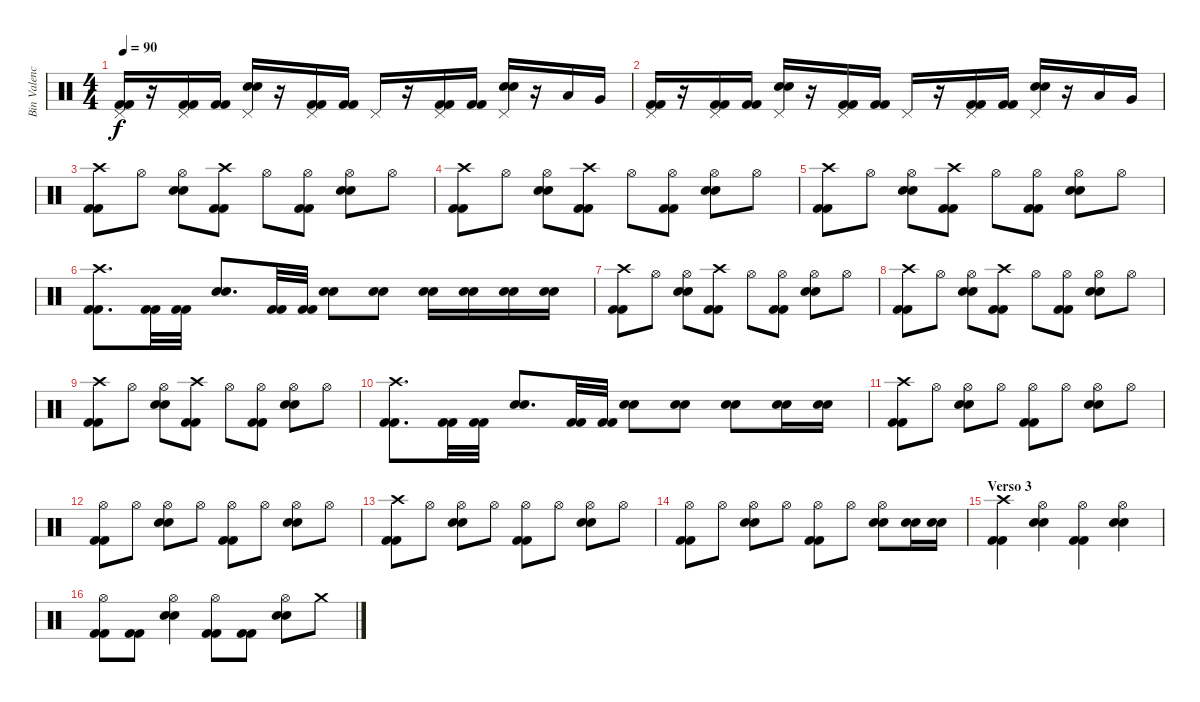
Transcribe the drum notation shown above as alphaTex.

\track ("Bin Valencia" "Bin Valenc") {instrument percussion}
\staff {score}
\articulation defaults
\ts (4 4)
\tempo 90
\clef neutral
\ks c
("Pedal Hi-Hat (hit)" "Kick (hit) 2" "Kick (hit) 2").16{dy f} r.16 ("Pedal Hi-Hat (hit)" "Kick (hit) 2" "Kick (hit) 2").16 ("Kick (hit) 2" "Kick (hit) 2").16 ("Pedal Hi-Hat (hit)" "Electric Snare (hit)" "Electric Snare (hit)").16 r.16 ("Pedal Hi-Hat (hit)" "Kick (hit) 2" "Kick (hit) 2").16 ("Kick (hit) 2" "Kick (hit) 2").16 "Pedal Hi-Hat (hit)".16 r.16 ("Pedal Hi-Hat (hit)" "Kick (hit) 2" "Kick (hit) 2").16 ("Kick (hit) 2" "Kick (hit) 2").16 ("Pedal Hi-Hat (hit)" "Electric Snare (hit)" "Electric Snare (hit)").16 r.16 "Low Tom (hit)".16 "Very Low Tom (hit)".16 |
("Pedal Hi-Hat (hit)" "Kick (hit) 2" "Kick (hit) 2").16 r.16 ("Pedal Hi-Hat (hit)" "Kick (hit) 2" "Kick (hit) 2").16 ("Kick (hit) 2" "Kick (hit) 2").16 ("Pedal Hi-Hat (hit)" "Electric Snare (hit)" "Electric Snare (hit)").16 r.16 ("Pedal Hi-Hat (hit)" "Kick (hit) 2" "Kick (hit) 2").16 ("Kick (hit) 2" "Kick (hit) 2").16 "Pedal Hi-Hat (hit)".16 r.16 ("Pedal Hi-Hat (hit)" "Kick (hit) 2" "Kick (hit) 2").16 ("Kick (hit) 2" "Kick (hit) 2").16 ("Pedal Hi-Hat (hit)" "Electric Snare (hit)" "Electric Snare (hit)").16 r.16 "Low Tom (hit)".16 "Very Low Tom (hit)".16 |
("Crash high (hit)" "Kick (hit) 2" "Kick (hit) 2").8 "Hi-Hat (open)".8 ("Hi-Hat (open)" "Snare (hit) 2" "Snare (hit) 2").8 ("Crash high (hit)" "Kick (hit) 2" "Kick (hit) 2").8 "Hi-Hat (open)".8 ("Hi-Hat (open)" "Kick (hit) 2" "Kick (hit) 2").8 ("Hi-Hat (open)" "Snare (hit) 2" "Snare (hit) 2").8 "Hi-Hat (open)".8 |
("Crash high (hit)" "Kick (hit) 2" "Kick (hit) 2").8 "Hi-Hat (open)".8 ("Hi-Hat (open)" "Snare (hit) 2" "Snare (hit) 2").8 ("Crash high (hit)" "Kick (hit) 2" "Kick (hit) 2").8 "Hi-Hat (open)".8 ("Hi-Hat (open)" "Kick (hit) 2" "Kick (hit) 2").8 ("Hi-Hat (open)" "Snare (hit) 2" "Snare (hit) 2").8 "Hi-Hat (open)".8 |
("Crash high (hit)" "Kick (hit) 2" "Kick (hit) 2").8 "Hi-Hat (open)".8 ("Hi-Hat (open)" "Snare (hit) 2" "Snare (hit) 2").8 ("Crash high (hit)" "Kick (hit) 2" "Kick (hit) 2").8 "Hi-Hat (open)".8 ("Hi-Hat (open)" "Kick (hit) 2" "Kick (hit) 2").8 ("Hi-Hat (open)" "Snare (hit) 2" "Snare (hit) 2").8 "Hi-Hat (open)".8 |
("Crash high (hit)" "Kick (hit) 2" "Kick (hit) 2").8{d} ("Kick (hit) 2" "Kick (hit) 2").32 ("Kick (hit) 2" "Kick (hit) 2").32 ("Snare (hit) 2" "Snare (hit) 2").8{d} ("Kick (hit) 2" "Kick (hit) 2").32 ("Kick (hit) 2" "Kick (hit) 2").32 ("Snare (hit) 2" "Snare (hit) 2").8 ("Snare (hit) 2" "Snare (hit) 2").8 ("Snare (hit) 2" "Snare (hit) 2").16 ("Snare (hit) 2" "Snare (hit) 2").16 ("Snare (hit) 2" "Snare (hit) 2").16 ("Snare (hit) 2" "Snare (hit) 2").16 |
("Crash high (hit)" "Kick (hit) 2" "Kick (hit) 2").8 "Hi-Hat (open)".8 ("Hi-Hat (open)" "Snare (hit) 2" "Snare (hit) 2").8 ("Crash high (hit)" "Kick (hit) 2" "Kick (hit) 2").8 "Hi-Hat (open)".8 ("Hi-Hat (open)" "Kick (hit) 2" "Kick (hit) 2").8 ("Hi-Hat (open)" "Snare (hit) 2" "Snare (hit) 2").8 "Hi-Hat (open)".8 |
("Crash high (hit)" "Kick (hit) 2" "Kick (hit) 2").8 "Hi-Hat (open)".8 ("Hi-Hat (open)" "Snare (hit) 2" "Snare (hit) 2").8 ("Crash high (hit)" "Kick (hit) 2" "Kick (hit) 2").8 "Hi-Hat (open)".8 ("Hi-Hat (open)" "Kick (hit) 2" "Kick (hit) 2").8 ("Hi-Hat (open)" "Snare (hit) 2" "Snare (hit) 2").8 "Hi-Hat (open)".8 |
("Crash high (hit)" "Kick (hit) 2" "Kick (hit) 2").8 "Hi-Hat (open)".8 ("Hi-Hat (open)" "Snare (hit) 2" "Snare (hit) 2").8 ("Crash high (hit)" "Kick (hit) 2" "Kick (hit) 2").8 "Hi-Hat (open)".8 ("Hi-Hat (open)" "Kick (hit) 2" "Kick (hit) 2").8 ("Hi-Hat (open)" "Snare (hit) 2" "Snare (hit) 2").8 "Hi-Hat (open)".8 |
("Crash high (hit)" "Kick (hit) 2" "Kick (hit) 2").8{d} ("Kick (hit) 2" "Kick (hit) 2").32 ("Kick (hit) 2" "Kick (hit) 2").32 ("Snare (hit) 2" "Snare (hit) 2").8{d} ("Kick (hit) 2" "Kick (hit) 2").32 ("Kick (hit) 2" "Kick (hit) 2").32 ("Snare (hit) 2" "Snare (hit) 2").8 ("Snare (hit) 2" "Snare (hit) 2").8 ("Snare (hit) 2" "Snare (hit) 2").8 ("Snare (hit) 2" "Snare (hit) 2").16 ("Snare (hit) 2" "Snare (hit) 2").16 |
("Crash high (hit)" "Kick (hit) 2" "Kick (hit) 2").8 "Hi-Hat (open)".8 ("Hi-Hat (open)" "Snare (hit) 2" "Snare (hit) 2").8 "Hi-Hat (open)".8 ("Hi-Hat (open)" "Kick (hit) 2" "Kick (hit) 2").8 "Hi-Hat (open)".8 ("Hi-Hat (open)" "Snare (hit) 2" "Snare (hit) 2").8 "Hi-Hat (open)".8 |
("Hi-Hat (open)" "Kick (hit) 2" "Kick (hit) 2").8 "Hi-Hat (open)".8 ("Hi-Hat (open)" "Snare (hit) 2" "Snare (hit) 2").8 "Hi-Hat (open)".8 ("Hi-Hat (open)" "Kick (hit) 2" "Kick (hit) 2").8 "Hi-Hat (open)".8 ("Hi-Hat (open)" "Snare (hit) 2" "Snare (hit) 2").8 "Hi-Hat (open)".8 |
("Crash high (hit)" "Kick (hit) 2" "Kick (hit) 2").8 "Hi-Hat (open)".8 ("Hi-Hat (open)" "Snare (hit) 2" "Snare (hit) 2").8 "Hi-Hat (open)".8 ("Hi-Hat (open)" "Kick (hit) 2" "Kick (hit) 2").8 "Hi-Hat (open)".8 ("Hi-Hat (open)" "Snare (hit) 2" "Snare (hit) 2").8 "Hi-Hat (open)".8 |
("Hi-Hat (open)" "Kick (hit) 2" "Kick (hit) 2").8 "Hi-Hat (open)".8 ("Hi-Hat (open)" "Snare (hit) 2" "Snare (hit) 2").8 "Hi-Hat (open)".8 ("Hi-Hat (open)" "Kick (hit) 2" "Kick (hit) 2").8 "Hi-Hat (open)".8 ("Hi-Hat (open)" "Snare (hit) 2" "Snare (hit) 2").8 ("Snare (hit) 2" "Snare (hit) 2").16 ("Snare (hit) 2" "Snare (hit) 2").16 |
\section ("" "Verso 3")
("Crash high (hit)" "Kick (hit) 2" "Kick (hit) 2").4 ("Hi-Hat (open)" "Snare (hit) 2" "Snare (hit) 2").4 ("Hi-Hat (open)" "Kick (hit) 2" "Kick (hit) 2").4 ("Hi-Hat (open)" "Snare (hit) 2" "Snare (hit) 2").4 |
("Hi-Hat (open)" "Kick (hit) 2" "Kick (hit) 2").8 ("Kick (hit) 2" "Kick (hit) 2").8 ("Hi-Hat (open)" "Snare (hit) 2" "Snare (hit) 2").4 ("Hi-Hat (open)" "Kick (hit) 2" "Kick (hit) 2").8 ("Kick (hit) 2" "Kick (hit) 2").8 ("Hi-Hat (open)" "Snare (hit) 2" "Snare (hit) 2").8 "Crash medium (hit)".8
